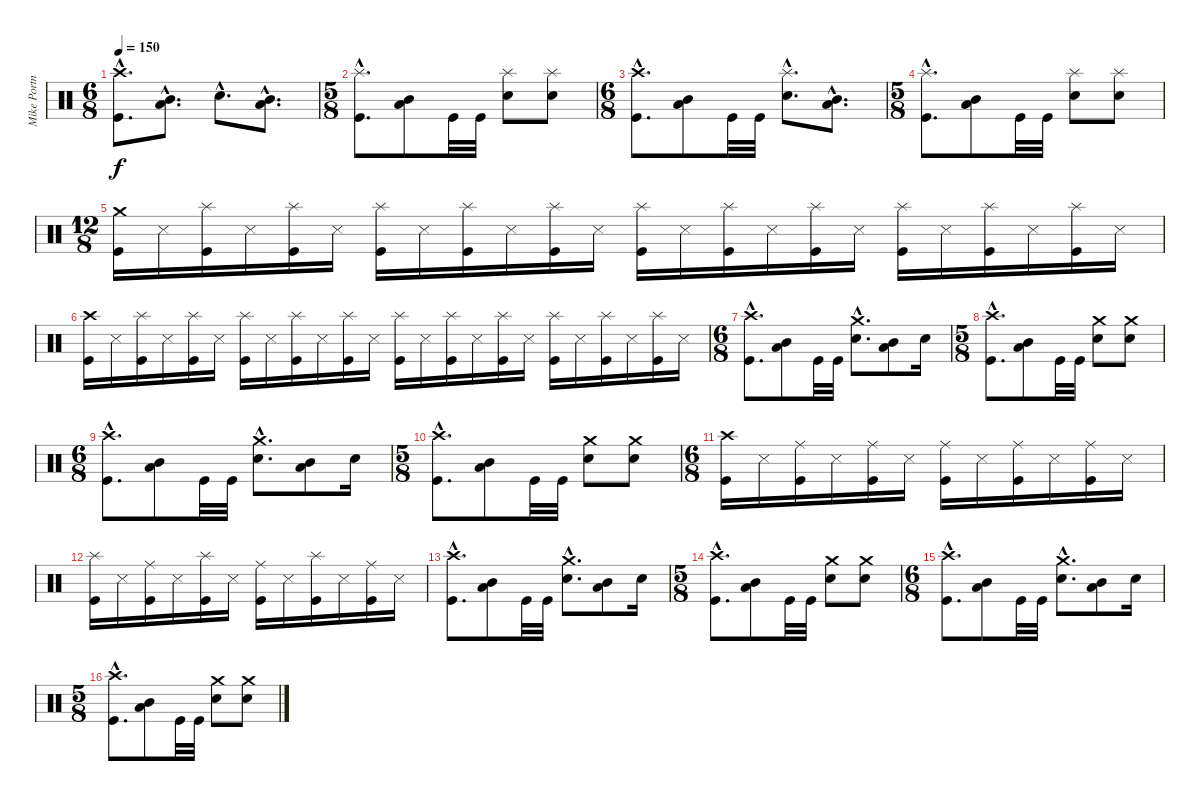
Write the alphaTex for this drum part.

\track ("Mike Portnoy" "Mike Portn") {instrument percussion}
\staff {score}
\articulation defaults
\ts (6 8)
\tempo 150
\clef neutral
\ks c
("Crash high (hit)"{hac} "Kick (hit)"{hac}).8{d dy f} ("Mid Tom (hit)"{hac} "Low Tom (hit)"{hac}).8{d} "Electric Snare (hit)"{hac}.8{d} ("Mid Tom (hit)"{hac} "Low Tom (hit)"{hac}).8{d} |
\ts (5 8)
("Splash (hit)"{hac} "Kick (hit)"{hac}).8{d} ("Mid Tom (hit)" "Low Tom (hit)").8 "Kick (hit)".32 "Kick (hit)".32 ("Splash (hit)" "Electric Snare (hit)").8 ("Splash (hit)" "Electric Snare (hit)").8 |
\ts (6 8)
("Crash high (hit)"{hac} "Kick (hit)"{hac}).8{d} ("Mid Tom (hit)" "Low Tom (hit)").8 "Kick (hit)".32 "Kick (hit)".32 ("Splash (hit)"{hac} "Electric Snare (hit)"{hac}).8{d} ("Mid Tom (hit)"{hac} "Low Tom (hit)"{hac}).8{d} |
\ts (5 8)
("Splash (hit)"{hac} "Kick (hit)"{hac}).8{d} ("Mid Tom (hit)" "Low Tom (hit)").8 "Kick (hit)".32 "Kick (hit)".32 ("Splash (hit)" "Electric Snare (hit)").8 ("Splash (hit)" "Electric Snare (hit)").8 |
\ts (12 8)
("Crash medium (hit)" "Kick (hit)").16 "Snare (side stick) 3".16 ("Splash (hit)" "Kick (hit)").16 "Snare (side stick) 3".16 ("Splash (hit)" "Kick (hit)").16 "Snare (side stick) 3".16 ("Splash (hit)" "Kick (hit)").16 "Snare (side stick) 3".16 ("Splash (hit)" "Kick (hit)").16 "Snare (side stick) 3".16 ("Splash (hit)" "Kick (hit)").16 "Snare (side stick) 3".16 ("Splash (hit)" "Kick (hit)").16 "Snare (side stick) 3".16 ("Splash (hit)" "Kick (hit)").16 "Snare (side stick) 3".16 ("Splash (hit)" "Kick (hit)").16 "Snare (side stick) 3".16 ("Splash (hit)" "Kick (hit)").16 "Snare (side stick) 3".16 ("Splash (hit)" "Kick (hit)").16 "Snare (side stick) 3".16 ("Splash (hit)" "Kick (hit)").16 "Snare (side stick) 3".16 |
("Crash high (hit)" "Kick (hit)").16 "Snare (side stick) 3".16 ("Splash (hit)" "Kick (hit)").16 "Snare (side stick) 3".16 ("Splash (hit)" "Kick (hit)").16 "Snare (side stick) 3".16 ("Splash (hit)" "Kick (hit)").16 "Snare (side stick) 3".16 ("Splash (hit)" "Kick (hit)").16 "Snare (side stick) 3".16 ("Splash (hit)" "Kick (hit)").16 "Snare (side stick) 3".16 ("Splash (hit)" "Kick (hit)").16 "Snare (side stick) 3".16 ("Splash (hit)" "Kick (hit)").16 "Snare (side stick) 3".16 ("Splash (hit)" "Kick (hit)").16 "Snare (side stick) 3".16 ("Splash (hit)" "Kick (hit)").16 "Snare (side stick) 3".16 ("Splash (hit)" "Kick (hit)").16 "Snare (side stick) 3".16 ("Splash (hit)" "Kick (hit)").16 "Snare (side stick) 3".16 |
\ts (6 8)
("Crash high (hit)"{hac} "Kick (hit)"{hac}).8{d} ("Mid Tom (hit)" "Low Tom (hit)").8 "Kick (hit)".32 "Kick (hit)".32 ("Crash medium (hit)"{hac} "Electric Snare (hit)"{hac}).8{d} ("Mid Tom (hit)" "Low Tom (hit)").8 "Electric Snare (hit)".16 |
\ts (5 8)
("Crash high (hit)"{hac} "Kick (hit)"{hac}).8{d} ("Mid Tom (hit)" "Low Tom (hit)").8 "Kick (hit)".32 "Kick (hit)".32 ("Crash medium (hit)" "Electric Snare (hit)").8 ("Crash medium (hit)" "Electric Snare (hit)").8 |
\ts (6 8)
("Crash high (hit)"{hac} "Kick (hit)"{hac}).8{d} ("Mid Tom (hit)" "Low Tom (hit)").8 "Kick (hit)".32 "Kick (hit)".32 ("Crash medium (hit)"{hac} "Electric Snare (hit)"{hac}).8{d} ("Mid Tom (hit)" "Low Tom (hit)").8 "Electric Snare (hit)".16 |
\ts (5 8)
("Crash high (hit)"{hac} "Kick (hit)"{hac}).8{d} ("Mid Tom (hit)" "Low Tom (hit)").8 "Kick (hit)".32 "Kick (hit)".32 ("Crash medium (hit)" "Electric Snare (hit)").8 ("Crash medium (hit)" "Electric Snare (hit)").8 |
\ts (6 8)
("Crash high (hit)" "Kick (hit)").16 "Snare (side stick) 3".16 ("Ride (middle)" "Kick (hit)").16 "Snare (side stick) 3".16 ("Ride (middle)" "Kick (hit)").16 "Snare (side stick) 3".16 ("Ride (middle)" "Kick (hit)").16 "Snare (side stick) 3".16 ("Ride (middle)" "Kick (hit)").16 "Snare (side stick) 3".16 ("Ride (middle)" "Kick (hit)").16 "Snare (side stick) 3".16 |
("Splash (hit)" "Kick (hit)").16 "Snare (side stick) 3".16 ("Ride (middle)" "Kick (hit)").16 "Snare (side stick) 3".16 ("Splash (hit)" "Kick (hit)").16 "Snare (side stick) 3".16 ("Ride (middle)" "Kick (hit)").16 "Snare (side stick) 3".16 ("Splash (hit)" "Kick (hit)").16 "Snare (side stick) 3".16 ("Ride (middle)" "Kick (hit)").16 "Snare (side stick) 3".16 |
("Crash high (hit)"{hac} "Kick (hit)"{hac}).8{d} ("Mid Tom (hit)" "Low Tom (hit)").8 "Kick (hit)".32 "Kick (hit)".32 ("Crash medium (hit)"{hac} "Electric Snare (hit)"{hac}).8{d} ("Mid Tom (hit)" "Low Tom (hit)").8 "Electric Snare (hit)".16 |
\ts (5 8)
("Crash high (hit)"{hac} "Kick (hit)"{hac}).8{d} ("Mid Tom (hit)" "Low Tom (hit)").8 "Kick (hit)".32 "Kick (hit)".32 ("Crash medium (hit)" "Electric Snare (hit)").8 ("Crash medium (hit)" "Electric Snare (hit)").8 |
\ts (6 8)
("Crash high (hit)"{hac} "Kick (hit)"{hac}).8{d} ("Mid Tom (hit)" "Low Tom (hit)").8 "Kick (hit)".32 "Kick (hit)".32 ("Crash medium (hit)"{hac} "Electric Snare (hit)"{hac}).8{d} ("Mid Tom (hit)" "Low Tom (hit)").8 "Electric Snare (hit)".16 |
\ts (5 8)
("Crash high (hit)"{hac} "Kick (hit)"{hac}).8{d} ("Mid Tom (hit)" "Low Tom (hit)").8 "Kick (hit)".32 "Kick (hit)".32 ("Crash medium (hit)" "Electric Snare (hit)").8 ("Crash medium (hit)" "Electric Snare (hit)").8
